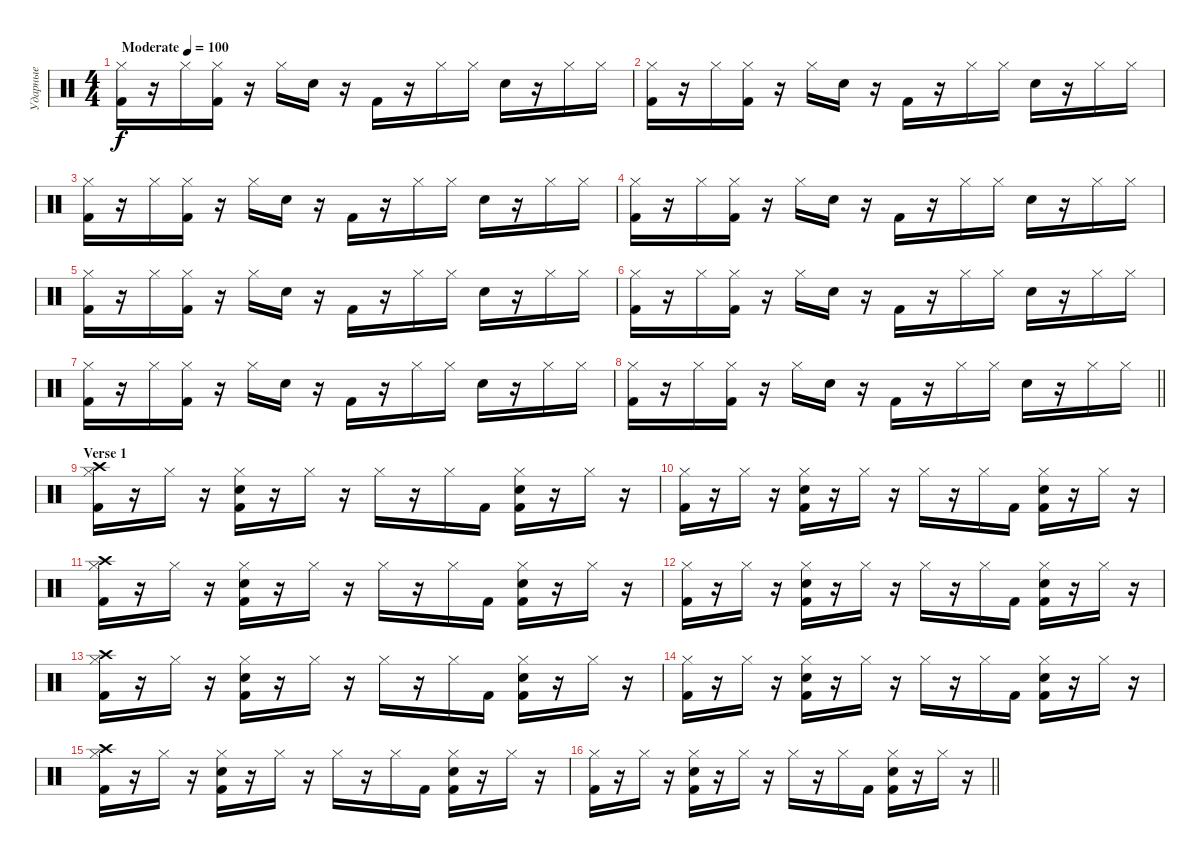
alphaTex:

\track ("Ударные" "Ударные") {instrument percussion}
\staff {score}
\articulation defaults
\ts (4 4)
\tempo (100 "Moderate")
\clef neutral
\ks c
("Hi-Hat (closed)" "Kick (hit) 2").16{dy f} r.16 "Hi-Hat (closed)".16 ("Hi-Hat (closed)" "Kick (hit) 2").16 r.16 "Hi-Hat (closed)".16 "Electric Snare (hit)".16 r.16 "Kick (hit) 2".16 r.16 "Hi-Hat (closed)".16 "Hi-Hat (closed)".16 "Electric Snare (hit)".16 r.16 "Hi-Hat (closed)".16 "Hi-Hat (closed)".16 |
("Hi-Hat (closed)" "Kick (hit) 2").16 r.16 "Hi-Hat (closed)".16 ("Hi-Hat (closed)" "Kick (hit) 2").16 r.16 "Hi-Hat (closed)".16 "Electric Snare (hit)".16 r.16 "Kick (hit) 2".16 r.16 "Hi-Hat (closed)".16 "Hi-Hat (closed)".16 "Electric Snare (hit)".16 r.16 "Hi-Hat (closed)".16 "Hi-Hat (closed)".16 |
("Hi-Hat (closed)" "Kick (hit) 2").16 r.16 "Hi-Hat (closed)".16 ("Hi-Hat (closed)" "Kick (hit) 2").16 r.16 "Hi-Hat (closed)".16 "Electric Snare (hit)".16 r.16 "Kick (hit) 2".16 r.16 "Hi-Hat (closed)".16 "Hi-Hat (closed)".16 "Electric Snare (hit)".16 r.16 "Hi-Hat (closed)".16 "Hi-Hat (closed)".16 |
("Hi-Hat (closed)" "Kick (hit) 2").16 r.16 "Hi-Hat (closed)".16 ("Hi-Hat (closed)" "Kick (hit) 2").16 r.16 "Hi-Hat (closed)".16 "Electric Snare (hit)".16 r.16 "Kick (hit) 2".16 r.16 "Hi-Hat (closed)".16 "Hi-Hat (closed)".16 "Electric Snare (hit)".16 r.16 "Hi-Hat (closed)".16 "Hi-Hat (closed)".16 |
("Hi-Hat (closed)" "Kick (hit) 2").16 r.16 "Hi-Hat (closed)".16 ("Hi-Hat (closed)" "Kick (hit) 2").16 r.16 "Hi-Hat (closed)".16 "Electric Snare (hit)".16 r.16 "Kick (hit) 2".16 r.16 "Hi-Hat (closed)".16 "Hi-Hat (closed)".16 "Electric Snare (hit)".16 r.16 "Hi-Hat (closed)".16 "Hi-Hat (closed)".16 |
("Hi-Hat (closed)" "Kick (hit) 2").16 r.16 "Hi-Hat (closed)".16 ("Hi-Hat (closed)" "Kick (hit) 2").16 r.16 "Hi-Hat (closed)".16 "Electric Snare (hit)".16 r.16 "Kick (hit) 2".16 r.16 "Hi-Hat (closed)".16 "Hi-Hat (closed)".16 "Electric Snare (hit)".16 r.16 "Hi-Hat (closed)".16 "Hi-Hat (closed)".16 |
("Hi-Hat (closed)" "Kick (hit) 2").16 r.16 "Hi-Hat (closed)".16 ("Hi-Hat (closed)" "Kick (hit) 2").16 r.16 "Hi-Hat (closed)".16 "Electric Snare (hit)".16 r.16 "Kick (hit) 2".16 r.16 "Hi-Hat (closed)".16 "Hi-Hat (closed)".16 "Electric Snare (hit)".16 r.16 "Hi-Hat (closed)".16 "Hi-Hat (closed)".16 |
\barLineRight lightlight
("Hi-Hat (closed)" "Kick (hit) 2").16 r.16 "Hi-Hat (closed)".16 ("Hi-Hat (closed)" "Kick (hit) 2").16 r.16 "Hi-Hat (closed)".16 "Electric Snare (hit)".16 r.16 "Kick (hit) 2".16 r.16 "Hi-Hat (closed)".16 "Hi-Hat (closed)".16 "Electric Snare (hit)".16 r.16 "Hi-Hat (closed)".16 "Hi-Hat (closed)".16 |
\section ("" "Verse 1")
("Hi-Hat (closed)" "Kick (hit) 2" "Crash high (hit)").16 r.16 "Hi-Hat (closed)".16 r.16 ("Hi-Hat (closed)" "Kick (hit) 2" "Electric Snare (hit)").16 r.16 "Hi-Hat (closed)".16 r.16 "Hi-Hat (closed)".16 r.16 "Hi-Hat (closed)".16 "Kick (hit) 2".16 ("Hi-Hat (closed)" "Kick (hit) 2" "Electric Snare (hit)").16 r.16 "Hi-Hat (closed)".16 r.16 |
("Hi-Hat (closed)" "Kick (hit) 2").16 r.16 "Hi-Hat (closed)".16 r.16 ("Hi-Hat (closed)" "Kick (hit) 2" "Electric Snare (hit)").16 r.16 "Hi-Hat (closed)".16 r.16 "Hi-Hat (closed)".16 r.16 "Hi-Hat (closed)".16 "Kick (hit) 2".16 ("Hi-Hat (closed)" "Kick (hit) 2" "Electric Snare (hit)").16 r.16 "Hi-Hat (closed)".16 r.16 |
("Hi-Hat (closed)" "Kick (hit) 2" "Crash high (hit)").16 r.16 "Hi-Hat (closed)".16 r.16 ("Hi-Hat (closed)" "Kick (hit) 2" "Electric Snare (hit)").16 r.16 "Hi-Hat (closed)".16 r.16 "Hi-Hat (closed)".16 r.16 "Hi-Hat (closed)".16 "Kick (hit) 2".16 ("Hi-Hat (closed)" "Kick (hit) 2" "Electric Snare (hit)").16 r.16 "Hi-Hat (closed)".16 r.16 |
("Hi-Hat (closed)" "Kick (hit) 2").16 r.16 "Hi-Hat (closed)".16 r.16 ("Hi-Hat (closed)" "Kick (hit) 2" "Electric Snare (hit)").16 r.16 "Hi-Hat (closed)".16 r.16 "Hi-Hat (closed)".16 r.16 "Hi-Hat (closed)".16 "Kick (hit) 2".16 ("Hi-Hat (closed)" "Kick (hit) 2" "Electric Snare (hit)").16 r.16 "Hi-Hat (closed)".16 r.16 |
("Hi-Hat (closed)" "Kick (hit) 2" "Crash high (hit)").16 r.16 "Hi-Hat (closed)".16 r.16 ("Hi-Hat (closed)" "Kick (hit) 2" "Electric Snare (hit)").16 r.16 "Hi-Hat (closed)".16 r.16 "Hi-Hat (closed)".16 r.16 "Hi-Hat (closed)".16 "Kick (hit) 2".16 ("Hi-Hat (closed)" "Kick (hit) 2" "Electric Snare (hit)").16 r.16 "Hi-Hat (closed)".16 r.16 |
("Hi-Hat (closed)" "Kick (hit) 2").16 r.16 "Hi-Hat (closed)".16 r.16 ("Hi-Hat (closed)" "Kick (hit) 2" "Electric Snare (hit)").16 r.16 "Hi-Hat (closed)".16 r.16 "Hi-Hat (closed)".16 r.16 "Hi-Hat (closed)".16 "Kick (hit) 2".16 ("Hi-Hat (closed)" "Kick (hit) 2" "Electric Snare (hit)").16 r.16 "Hi-Hat (closed)".16 r.16 |
("Hi-Hat (closed)" "Kick (hit) 2" "Crash high (hit)").16 r.16 "Hi-Hat (closed)".16 r.16 ("Hi-Hat (closed)" "Kick (hit) 2" "Electric Snare (hit)").16 r.16 "Hi-Hat (closed)".16 r.16 "Hi-Hat (closed)".16 r.16 "Hi-Hat (closed)".16 "Kick (hit) 2".16 ("Hi-Hat (closed)" "Kick (hit) 2" "Electric Snare (hit)").16 r.16 "Hi-Hat (closed)".16 r.16 |
\barLineRight lightlight
("Hi-Hat (closed)" "Kick (hit) 2").16 r.16 "Hi-Hat (closed)".16 r.16 ("Hi-Hat (closed)" "Kick (hit) 2" "Electric Snare (hit)").16 r.16 "Hi-Hat (closed)".16 r.16 "Hi-Hat (closed)".16 r.16 "Hi-Hat (closed)".16 "Kick (hit) 2".16 ("Hi-Hat (closed)" "Kick (hit) 2" "Electric Snare (hit)").16 r.16 "Hi-Hat (closed)".16 r.16
